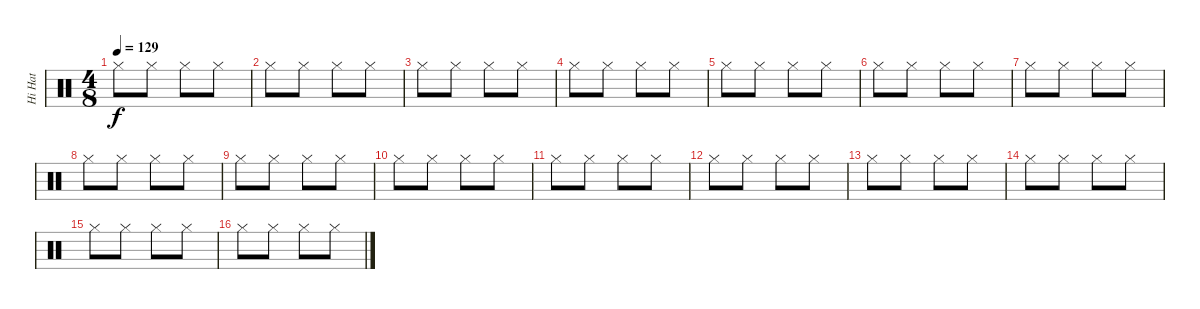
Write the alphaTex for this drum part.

\track ("Hi Hat" "Hi Hat") {instrument percussion}
\staff {score}
\articulation defaults
\ts (4 8)
\tempo 129
\clef neutral
\ks c "Hi-Hat (closed)".8{dy f} "Hi-Hat (closed)".8 "Hi-Hat (closed)".8 "Hi-Hat (closed)".8
|
"Hi-Hat (closed)".8 "Hi-Hat (closed)".8 "Hi-Hat (closed)".8 "Hi-Hat (closed)".8 |
"Hi-Hat (closed)".8 "Hi-Hat (closed)".8 "Hi-Hat (closed)".8 "Hi-Hat (closed)".8 |
"Hi-Hat (closed)".8 "Hi-Hat (closed)".8 "Hi-Hat (closed)".8 "Hi-Hat (closed)".8 |
"Hi-Hat (closed)".8 "Hi-Hat (closed)".8 "Hi-Hat (closed)".8 "Hi-Hat (closed)".8 |
"Hi-Hat (closed)".8 "Hi-Hat (closed)".8 "Hi-Hat (closed)".8 "Hi-Hat (closed)".8 |
"Hi-Hat (closed)".8 "Hi-Hat (closed)".8 "Hi-Hat (closed)".8 "Hi-Hat (closed)".8 |
"Hi-Hat (closed)".8 "Hi-Hat (closed)".8 "Hi-Hat (closed)".8 "Hi-Hat (closed)".8 |
"Hi-Hat (closed)".8 "Hi-Hat (closed)".8 "Hi-Hat (closed)".8 "Hi-Hat (closed)".8 |
"Hi-Hat (closed)".8 "Hi-Hat (closed)".8 "Hi-Hat (closed)".8 "Hi-Hat (closed)".8 |
"Hi-Hat (closed)".8 "Hi-Hat (closed)".8 "Hi-Hat (closed)".8 "Hi-Hat (closed)".8 |
"Hi-Hat (closed)".8 "Hi-Hat (closed)".8 "Hi-Hat (closed)".8 "Hi-Hat (closed)".8 |
"Hi-Hat (closed)".8 "Hi-Hat (closed)".8 "Hi-Hat (closed)".8 "Hi-Hat (closed)".8 |
"Hi-Hat (closed)".8 "Hi-Hat (closed)".8 "Hi-Hat (closed)".8 "Hi-Hat (closed)".8 |
"Hi-Hat (closed)".8 "Hi-Hat (closed)".8 "Hi-Hat (closed)".8 "Hi-Hat (closed)".8 |
"Hi-Hat (closed)".8 "Hi-Hat (closed)".8 "Hi-Hat (closed)".8 "Hi-Hat (closed)".8
